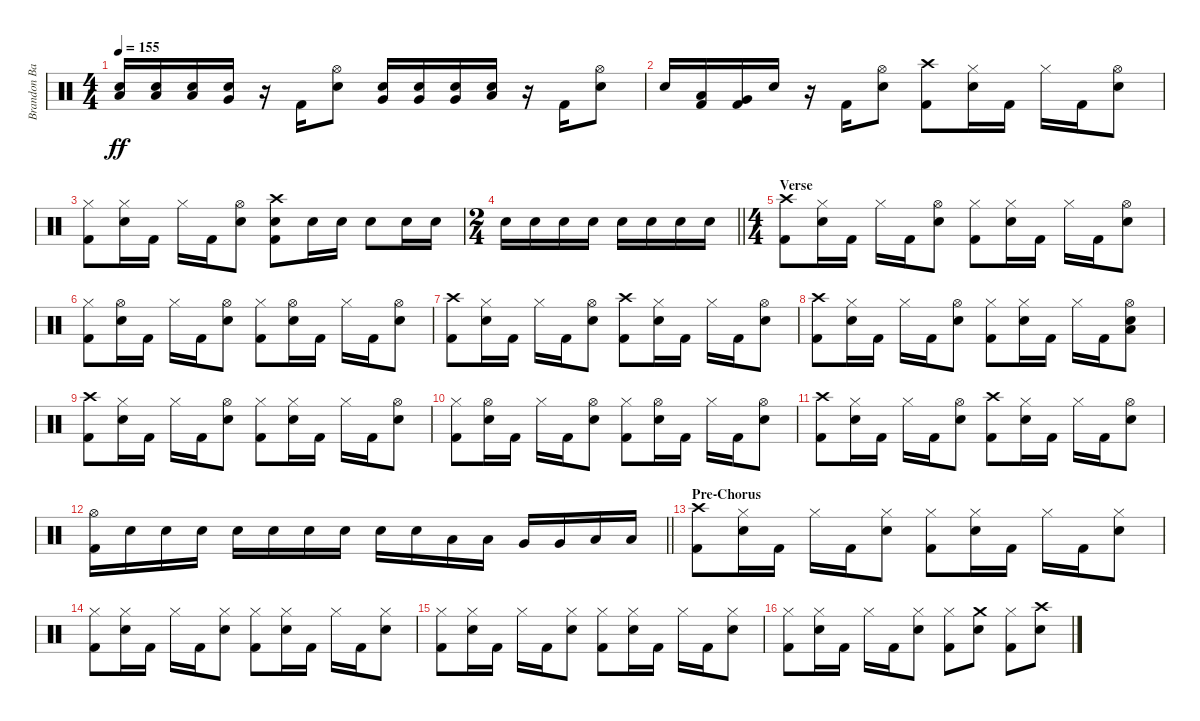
\track ("Brandon Barnes - Drums" "Brandon Ba") {instrument percussion}
\staff {score}
\articulation defaults
\ts (4 4)
\tempo 155
\clef neutral
\ks c
("Snare (hit) 2" "Low Tom (hit)").16{dy ff} ("Snare (hit) 2" "Low Tom (hit)").16 ("Snare (hit) 2" "Low Tom (hit)").16 ("Snare (hit) 2" "Very Low Tom (hit)").16 r.16 "Kick (hit) 2".16 ("Snare (hit) 2" "Hi-Hat (open)").8 ("Snare (hit) 2" "Very Low Tom (hit)").16 ("Snare (hit) 2" "Very Low Tom (hit)").16 ("Snare (hit) 2" "Very Low Tom (hit)").16 ("Snare (hit) 2" "Low Floor Tom (hit)").16 r.16 "Kick (hit) 2".16 ("Snare (hit) 2" "Hi-Hat (open)").8 |
"Snare (hit) 2".16 ("Low Tom (hit)" "Kick (hit) 2").16 ("Very Low Tom (hit)" "Kick (hit) 2").16 "Snare (hit) 2".16 r.16 "Kick (hit) 2".16 ("Snare (hit) 2" "Hi-Hat (open)").8 ("Kick (hit) 2" "Crash high (hit)").8 ("Snare (hit) 2" "Hi-Hat (closed)").16 "Kick (hit) 2".16 "Hi-Hat (closed)".16 "Kick (hit) 2".16 ("Snare (hit) 2" "Hi-Hat (open)").8 |
("Kick (hit) 2" "Hi-Hat (closed)").8 ("Snare (hit) 2" "Hi-Hat (closed)").16 "Kick (hit) 2".16 "Hi-Hat (closed)".16 "Kick (hit) 2".16 ("Snare (hit) 2" "Hi-Hat (open)").8 ("Snare (hit) 2" "Crash high (hit)" "Kick (hit) 2").8 "Snare (hit) 2".16 "Snare (hit) 2".16 "Snare (hit) 2".8 "Snare (hit) 2".16 "Snare (hit) 2".16 |
\ts (2 4)
\barLineRight lightlight "Snare (hit) 2".16 "Snare (hit) 2".16 "Snare (hit) 2".16 "Snare (hit) 2".16 "Snare (hit) 2".16 "Snare (hit) 2".16 "Snare (hit) 2".16 "Snare (hit) 2".16
|
\ts (4 4)
\section ("" "Verse")
("Kick (hit) 2" "Crash high (hit)").8 ("Snare (hit) 2" "Hi-Hat (closed)").16 "Kick (hit) 2".16 "Hi-Hat (closed)".16 "Kick (hit) 2".16 ("Snare (hit) 2" "Hi-Hat (open)").8 ("Kick (hit) 2" "Hi-Hat (closed)").8 ("Snare (hit) 2" "Hi-Hat (closed)").16 "Kick (hit) 2".16 "Hi-Hat (closed)".16 "Kick (hit) 2".16 ("Snare (hit) 2" "Hi-Hat (open)").8 |
("Kick (hit) 2" "Hi-Hat (closed)").8 ("Snare (hit) 2" "Hi-Hat (open)").16 "Kick (hit) 2".16 "Hi-Hat (closed)".16 "Kick (hit) 2".16 ("Snare (hit) 2" "Hi-Hat (open)").8 ("Kick (hit) 2" "Hi-Hat (closed)").8 ("Snare (hit) 2" "Hi-Hat (open)").16 "Kick (hit) 2".16 "Hi-Hat (closed)".16 "Kick (hit) 2".16 ("Snare (hit) 2" "Hi-Hat (open)").8 |
("Kick (hit) 2" "Crash high (hit)").8 ("Snare (hit) 2" "Hi-Hat (closed)").16 "Kick (hit) 2".16 "Hi-Hat (closed)".16 "Kick (hit) 2".16 ("Snare (hit) 2" "Hi-Hat (open)").8 ("Kick (hit) 2" "Crash high (hit)").8 ("Snare (hit) 2" "Hi-Hat (closed)").16 "Kick (hit) 2".16 "Hi-Hat (closed)".16 "Kick (hit) 2".16 ("Snare (hit) 2" "Hi-Hat (open)").8 |
("Kick (hit) 2" "Crash high (hit)").8 ("Snare (hit) 2" "Hi-Hat (closed)").16 "Kick (hit) 2".16 "Hi-Hat (closed)".16 "Kick (hit) 2".16 ("Snare (hit) 2" "Hi-Hat (open)").8 ("Kick (hit) 2" "Hi-Hat (closed)").8 ("Snare (hit) 2" "Hi-Hat (closed)").16 "Kick (hit) 2".16 "Hi-Hat (closed)".16 "Kick (hit) 2".16 ("Snare (hit) 2" "Hi-Hat (open)" "Low Floor Tom (hit)").8 |
("Kick (hit) 2" "Crash high (hit)").8 ("Snare (hit) 2" "Hi-Hat (closed)").16 "Kick (hit) 2".16 "Hi-Hat (closed)".16 "Kick (hit) 2".16 ("Snare (hit) 2" "Hi-Hat (open)").8 ("Kick (hit) 2" "Hi-Hat (closed)").8 ("Snare (hit) 2" "Hi-Hat (closed)").16 "Kick (hit) 2".16 "Hi-Hat (closed)".16 "Kick (hit) 2".16 ("Snare (hit) 2" "Hi-Hat (open)").8 |
("Kick (hit) 2" "Hi-Hat (closed)").8 ("Snare (hit) 2" "Hi-Hat (open)").16 "Kick (hit) 2".16 "Hi-Hat (closed)".16 "Kick (hit) 2".16 ("Snare (hit) 2" "Hi-Hat (open)").8 ("Kick (hit) 2" "Hi-Hat (closed)").8 ("Snare (hit) 2" "Hi-Hat (open)").16 "Kick (hit) 2".16 "Hi-Hat (closed)".16 "Kick (hit) 2".16 ("Snare (hit) 2" "Hi-Hat (open)").8 |
("Kick (hit) 2" "Crash high (hit)").8 ("Snare (hit) 2" "Hi-Hat (closed)").16 "Kick (hit) 2".16 "Hi-Hat (closed)".16 "Kick (hit) 2".16 ("Snare (hit) 2" "Hi-Hat (open)").8 ("Kick (hit) 2" "Crash high (hit)").8 ("Snare (hit) 2" "Hi-Hat (closed)").16 "Kick (hit) 2".16 "Hi-Hat (closed)".16 "Kick (hit) 2".16 ("Snare (hit) 2" "Hi-Hat (open)").8 |
\barLineRight lightlight
("Kick (hit) 2" "Hi-Hat (open)").16 "Snare (hit) 2".16 "Snare (hit) 2".16 "Snare (hit) 2".16 "Snare (hit) 2".16 "Snare (hit) 2".16 "Snare (hit) 2".16 "Snare (hit) 2".16 "Snare (hit) 2".16 "Snare (hit) 2".16 "Low Tom (hit)".16 "Low Tom (hit)".16 "Very Low Tom (hit)".16 "Very Low Tom (hit)".16 "Low Floor Tom (hit)".16 "Low Floor Tom (hit)".16 |
\section ("" "Pre-Chorus")
("Kick (hit) 2" "Crash high (hit)").8 ("Snare (hit) 2" "Hi-Hat (closed)").16 "Kick (hit) 2".16 "Hi-Hat (closed)".16 "Kick (hit) 2".16 ("Snare (hit) 2" "Hi-Hat (closed)").8 ("Kick (hit) 2" "Hi-Hat (closed)").8 ("Snare (hit) 2" "Hi-Hat (closed)").16 "Kick (hit) 2".16 "Hi-Hat (closed)".16 "Kick (hit) 2".16 ("Snare (hit) 2" "Hi-Hat (closed)").8 |
("Kick (hit) 2" "Hi-Hat (closed)").8 ("Snare (hit) 2" "Hi-Hat (closed)").16 "Kick (hit) 2".16 "Hi-Hat (closed)".16 "Kick (hit) 2".16 ("Snare (hit) 2" "Hi-Hat (closed)").8 ("Kick (hit) 2" "Hi-Hat (closed)").8 ("Snare (hit) 2" "Hi-Hat (closed)").16 "Kick (hit) 2".16 "Hi-Hat (closed)".16 "Kick (hit) 2".16 ("Snare (hit) 2" "Hi-Hat (closed)").8 |
("Kick (hit) 2" "Hi-Hat (closed)").8 ("Snare (hit) 2" "Hi-Hat (closed)").16 "Kick (hit) 2".16 "Hi-Hat (closed)".16 "Kick (hit) 2".16 ("Snare (hit) 2" "Hi-Hat (closed)").8 ("Kick (hit) 2" "Hi-Hat (closed)").8 ("Snare (hit) 2" "Hi-Hat (closed)").16 "Kick (hit) 2".16 "Hi-Hat (closed)".16 "Kick (hit) 2".16 ("Snare (hit) 2" "Hi-Hat (closed)").8 |
("Kick (hit) 2" "Hi-Hat (closed)").8 ("Snare (hit) 2" "Hi-Hat (closed)").16 "Kick (hit) 2".16 "Hi-Hat (closed)".16 "Kick (hit) 2".16 ("Snare (hit) 2" "Hi-Hat (closed)").8 ("Kick (hit) 2" "Hi-Hat (closed)").8 ("Snare (hit) 2" "Crash medium (hit)").8 ("Kick (hit) 2" "Hi-Hat (closed)").8 ("Snare (hit) 2" "Crash high (hit)").8
